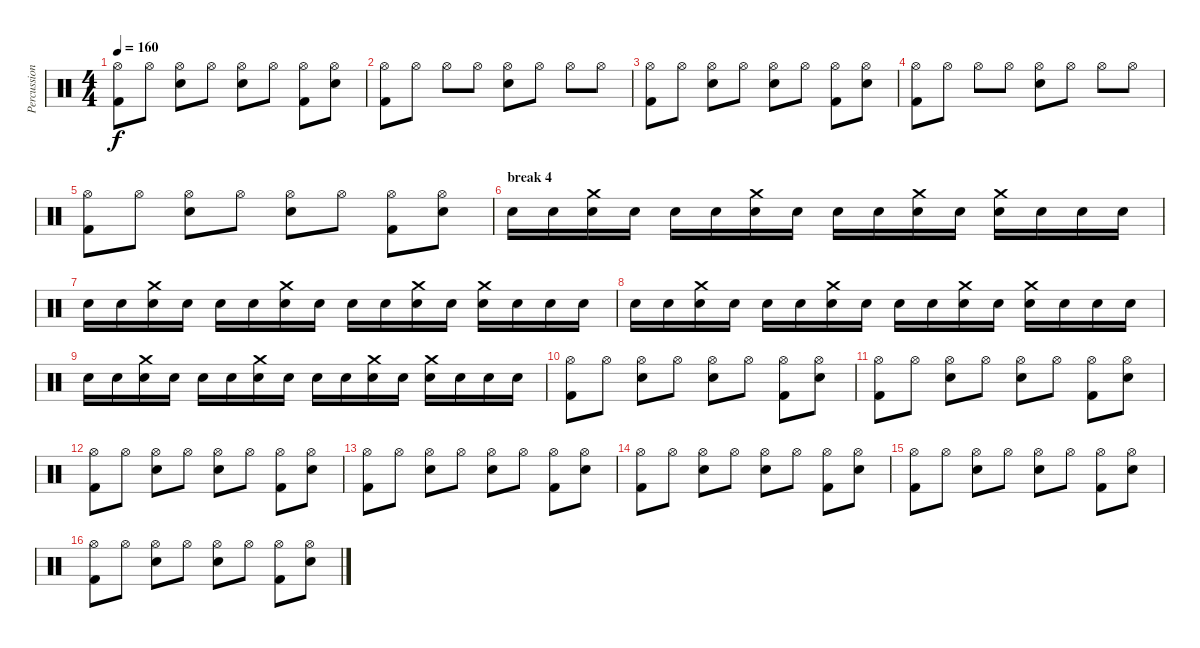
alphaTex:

\track ("Percussions" "Percussion") {instrument percussion}
\staff {score}
\articulation defaults
\ts (4 4)
\tempo 160
\clef neutral
\ks c
("Hi-Hat (open)" "Kick (hit) 2").8{dy f} "Hi-Hat (open)".8 ("Hi-Hat (open)" "Electric Snare (hit)").8 "Hi-Hat (open)".8 ("Hi-Hat (open)" "Electric Snare (hit)").8 "Hi-Hat (open)".8 ("Hi-Hat (open)" "Kick (hit) 2").8 ("Hi-Hat (open)" "Electric Snare (hit)").8 |
("Hi-Hat (open)" "Kick (hit) 2").8 "Hi-Hat (open)".8 "Hi-Hat (open)".8 "Hi-Hat (open)".8 ("Hi-Hat (open)" "Electric Snare (hit)").8 "Hi-Hat (open)".8 "Hi-Hat (open)".8 "Hi-Hat (open)".8 |
("Hi-Hat (open)" "Kick (hit) 2").8 "Hi-Hat (open)".8 ("Hi-Hat (open)" "Electric Snare (hit)").8 "Hi-Hat (open)".8 ("Hi-Hat (open)" "Electric Snare (hit)").8 "Hi-Hat (open)".8 ("Hi-Hat (open)" "Kick (hit) 2").8 ("Hi-Hat (open)" "Electric Snare (hit)").8 |
("Hi-Hat (open)" "Kick (hit) 2").8 "Hi-Hat (open)".8 "Hi-Hat (open)".8 "Hi-Hat (open)".8 ("Hi-Hat (open)" "Electric Snare (hit)").8 "Hi-Hat (open)".8 "Hi-Hat (open)".8 "Hi-Hat (open)".8 |
("Hi-Hat (open)" "Kick (hit) 2").8 "Hi-Hat (open)".8 ("Hi-Hat (open)" "Electric Snare (hit)").8 "Hi-Hat (open)".8 ("Hi-Hat (open)" "Electric Snare (hit)").8 "Hi-Hat (open)".8 ("Hi-Hat (open)" "Kick (hit) 2").8 ("Hi-Hat (open)" "Electric Snare (hit)").8 |
\section ("" "break 4")
"Electric Snare (hit)".16 "Electric Snare (hit)".16 ("Electric Snare (hit)" "Crash medium (hit)").16 "Electric Snare (hit)".16 "Electric Snare (hit)".16 "Electric Snare (hit)".16 ("Electric Snare (hit)" "Crash medium (hit)").16 "Electric Snare (hit)".16 "Electric Snare (hit)".16 "Electric Snare (hit)".16 ("Electric Snare (hit)" "Crash medium (hit)").16 "Electric Snare (hit)".16 ("Electric Snare (hit)" "Crash medium (hit)").16 "Electric Snare (hit)".16 "Electric Snare (hit)".16 "Electric Snare (hit)".16 |
"Electric Snare (hit)".16 "Electric Snare (hit)".16 ("Electric Snare (hit)" "Crash medium (hit)").16 "Electric Snare (hit)".16 "Electric Snare (hit)".16 "Electric Snare (hit)".16 ("Electric Snare (hit)" "Crash medium (hit)").16 "Electric Snare (hit)".16 "Electric Snare (hit)".16 "Electric Snare (hit)".16 ("Electric Snare (hit)" "Crash medium (hit)").16 "Electric Snare (hit)".16 ("Electric Snare (hit)" "Crash medium (hit)").16 "Electric Snare (hit)".16 "Electric Snare (hit)".16 "Electric Snare (hit)".16 |
"Electric Snare (hit)".16 "Electric Snare (hit)".16 ("Electric Snare (hit)" "Crash medium (hit)").16 "Electric Snare (hit)".16 "Electric Snare (hit)".16 "Electric Snare (hit)".16 ("Electric Snare (hit)" "Crash medium (hit)").16 "Electric Snare (hit)".16 "Electric Snare (hit)".16 "Electric Snare (hit)".16 ("Electric Snare (hit)" "Crash medium (hit)").16 "Electric Snare (hit)".16 ("Electric Snare (hit)" "Crash medium (hit)").16 "Electric Snare (hit)".16 "Electric Snare (hit)".16 "Electric Snare (hit)".16 |
"Electric Snare (hit)".16 "Electric Snare (hit)".16 ("Electric Snare (hit)" "Crash medium (hit)").16 "Electric Snare (hit)".16 "Electric Snare (hit)".16 "Electric Snare (hit)".16 ("Electric Snare (hit)" "Crash medium (hit)").16 "Electric Snare (hit)".16 "Electric Snare (hit)".16 "Electric Snare (hit)".16 ("Electric Snare (hit)" "Crash medium (hit)").16 "Electric Snare (hit)".16 ("Electric Snare (hit)" "Crash medium (hit)").16 "Electric Snare (hit)".16 "Electric Snare (hit)".16 "Electric Snare (hit)".16 |
("Hi-Hat (open)" "Kick (hit) 2").8 "Hi-Hat (open)".8 ("Hi-Hat (open)" "Electric Snare (hit)").8 "Hi-Hat (open)".8 ("Hi-Hat (open)" "Electric Snare (hit)").8 "Hi-Hat (open)".8 ("Hi-Hat (open)" "Kick (hit) 2").8 ("Hi-Hat (open)" "Electric Snare (hit)").8 |
("Hi-Hat (open)" "Kick (hit) 2").8 "Hi-Hat (open)".8 ("Hi-Hat (open)" "Electric Snare (hit)").8 "Hi-Hat (open)".8 ("Hi-Hat (open)" "Electric Snare (hit)").8 "Hi-Hat (open)".8 ("Hi-Hat (open)" "Kick (hit) 2").8 ("Hi-Hat (open)" "Electric Snare (hit)").8 |
("Hi-Hat (open)" "Kick (hit) 2").8 "Hi-Hat (open)".8 ("Hi-Hat (open)" "Electric Snare (hit)").8 "Hi-Hat (open)".8 ("Hi-Hat (open)" "Electric Snare (hit)").8 "Hi-Hat (open)".8 ("Hi-Hat (open)" "Kick (hit) 2").8 ("Hi-Hat (open)" "Electric Snare (hit)").8 |
("Hi-Hat (open)" "Kick (hit) 2").8 "Hi-Hat (open)".8 ("Hi-Hat (open)" "Electric Snare (hit)").8 "Hi-Hat (open)".8 ("Hi-Hat (open)" "Electric Snare (hit)").8 "Hi-Hat (open)".8 ("Hi-Hat (open)" "Kick (hit) 2").8 ("Hi-Hat (open)" "Electric Snare (hit)").8 |
("Hi-Hat (open)" "Kick (hit) 2").8 "Hi-Hat (open)".8 ("Hi-Hat (open)" "Electric Snare (hit)").8 "Hi-Hat (open)".8 ("Hi-Hat (open)" "Electric Snare (hit)").8 "Hi-Hat (open)".8 ("Hi-Hat (open)" "Kick (hit) 2").8 ("Hi-Hat (open)" "Electric Snare (hit)").8 |
("Hi-Hat (open)" "Kick (hit) 2").8 "Hi-Hat (open)".8 ("Hi-Hat (open)" "Electric Snare (hit)").8 "Hi-Hat (open)".8 ("Hi-Hat (open)" "Electric Snare (hit)").8 "Hi-Hat (open)".8 ("Hi-Hat (open)" "Kick (hit) 2").8 ("Hi-Hat (open)" "Electric Snare (hit)").8 |
("Hi-Hat (open)" "Kick (hit) 2").8 "Hi-Hat (open)".8 ("Hi-Hat (open)" "Electric Snare (hit)").8 "Hi-Hat (open)".8 ("Hi-Hat (open)" "Electric Snare (hit)").8 "Hi-Hat (open)".8 ("Hi-Hat (open)" "Kick (hit) 2").8 ("Hi-Hat (open)" "Electric Snare (hit)").8
